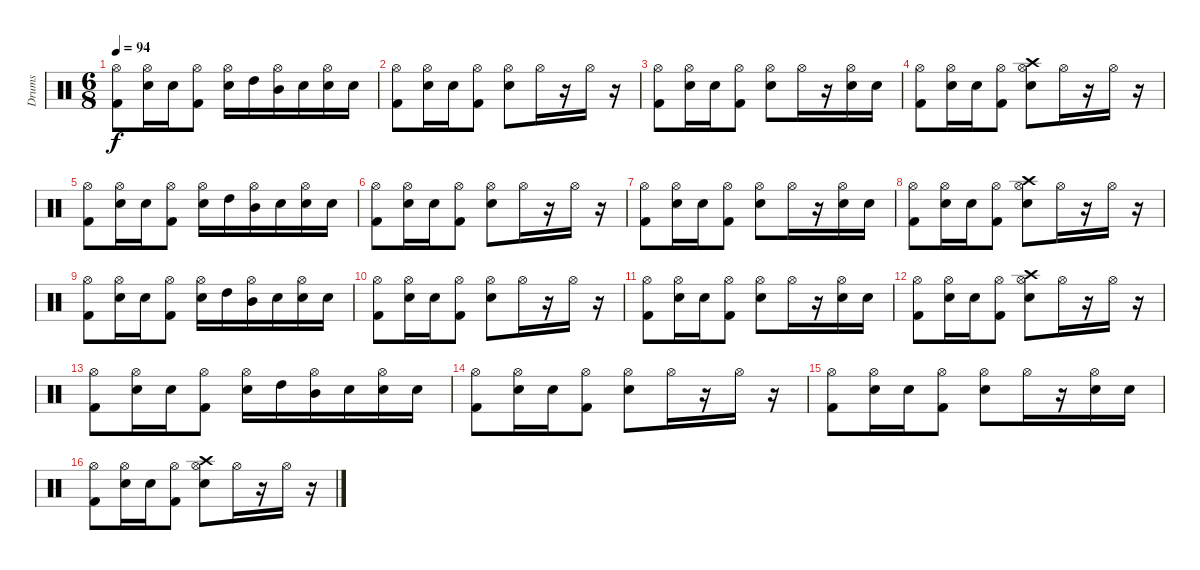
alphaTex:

\track ("Drums" "Drums") {instrument percussion}
\staff {score}
\articulation defaults
\ts (6 8)
\tempo 94
\clef neutral
\ks c
("Kick (hit) 2" "Hi-Hat (open)").8{dy f} ("Snare (hit) 2" "Hi-Hat (open)").16 "Snare (hit) 2".16 ("Kick (hit) 2" "Hi-Hat (open)").8 ("Electric Snare (hit)" "Hi-Hat (open)").16 "High Tom (hit)".16 ("Mid Tom (hit)" "Hi-Hat (open)").16 "Electric Snare (hit)".16 ("Snare (hit) 2" "Hi-Hat (open)").16 "Snare (hit) 2".16 |
("Kick (hit) 2" "Hi-Hat (open)").8 ("Snare (hit) 2" "Hi-Hat (open)").16 "Snare (hit) 2".16 ("Kick (hit) 2" "Hi-Hat (open)").8 ("Electric Snare (hit)" "Hi-Hat (open)").8 "Hi-Hat (open)".16 r.16 "Hi-Hat (open)".16 r.16 |
("Kick (hit) 2" "Hi-Hat (open)").8 ("Snare (hit) 2" "Hi-Hat (open)").16 "Snare (hit) 2".16 ("Kick (hit) 2" "Hi-Hat (open)").8 ("Electric Snare (hit)" "Hi-Hat (open)").8 "Hi-Hat (open)".16 r.16 ("Snare (hit) 2" "Hi-Hat (open)").16 "Snare (hit) 2".16 |
("Kick (hit) 2" "Hi-Hat (open)").8 ("Snare (hit) 2" "Hi-Hat (open)").16 "Snare (hit) 2".16 ("Kick (hit) 2" "Hi-Hat (open)").8 ("Electric Snare (hit)" "Crash high (hit)" "Hi-Hat (open)").8 "Hi-Hat (open)".16 r.16 "Hi-Hat (open)".16 r.16 |
("Kick (hit) 2" "Hi-Hat (open)").8 ("Snare (hit) 2" "Hi-Hat (open)").16 "Snare (hit) 2".16 ("Kick (hit) 2" "Hi-Hat (open)").8 ("Electric Snare (hit)" "Hi-Hat (open)").16 "High Tom (hit)".16 ("Mid Tom (hit)" "Hi-Hat (open)").16 "Electric Snare (hit)".16 ("Snare (hit) 2" "Hi-Hat (open)").16 "Snare (hit) 2".16 |
("Kick (hit) 2" "Hi-Hat (open)").8 ("Snare (hit) 2" "Hi-Hat (open)").16 "Snare (hit) 2".16 ("Kick (hit) 2" "Hi-Hat (open)").8 ("Electric Snare (hit)" "Hi-Hat (open)").8 "Hi-Hat (open)".16 r.16 "Hi-Hat (open)".16 r.16 |
("Kick (hit) 2" "Hi-Hat (open)").8 ("Snare (hit) 2" "Hi-Hat (open)").16 "Snare (hit) 2".16 ("Kick (hit) 2" "Hi-Hat (open)").8 ("Electric Snare (hit)" "Hi-Hat (open)").8 "Hi-Hat (open)".16 r.16 ("Snare (hit) 2" "Hi-Hat (open)").16 "Snare (hit) 2".16 |
("Kick (hit) 2" "Hi-Hat (open)").8 ("Snare (hit) 2" "Hi-Hat (open)").16 "Snare (hit) 2".16 ("Kick (hit) 2" "Hi-Hat (open)").8 ("Electric Snare (hit)" "Crash high (hit)" "Hi-Hat (open)").8 "Hi-Hat (open)".16 r.16 "Hi-Hat (open)".16 r.16 |
("Kick (hit) 2" "Hi-Hat (open)").8 ("Snare (hit) 2" "Hi-Hat (open)").16 "Snare (hit) 2".16 ("Kick (hit) 2" "Hi-Hat (open)").8 ("Electric Snare (hit)" "Hi-Hat (open)").16 "High Tom (hit)".16 ("Mid Tom (hit)" "Hi-Hat (open)").16 "Electric Snare (hit)".16 ("Snare (hit) 2" "Hi-Hat (open)").16 "Snare (hit) 2".16 |
("Kick (hit) 2" "Hi-Hat (open)").8 ("Snare (hit) 2" "Hi-Hat (open)").16 "Snare (hit) 2".16 ("Kick (hit) 2" "Hi-Hat (open)").8 ("Electric Snare (hit)" "Hi-Hat (open)").8 "Hi-Hat (open)".16 r.16 "Hi-Hat (open)".16 r.16 |
("Kick (hit) 2" "Hi-Hat (open)").8 ("Snare (hit) 2" "Hi-Hat (open)").16 "Snare (hit) 2".16 ("Kick (hit) 2" "Hi-Hat (open)").8 ("Electric Snare (hit)" "Hi-Hat (open)").8 "Hi-Hat (open)".16 r.16 ("Snare (hit) 2" "Hi-Hat (open)").16 "Snare (hit) 2".16 |
("Kick (hit) 2" "Hi-Hat (open)").8 ("Snare (hit) 2" "Hi-Hat (open)").16 "Snare (hit) 2".16 ("Kick (hit) 2" "Hi-Hat (open)").8 ("Electric Snare (hit)" "Crash high (hit)" "Hi-Hat (open)").8 "Hi-Hat (open)".16 r.16 "Hi-Hat (open)".16 r.16 |
("Kick (hit) 2" "Hi-Hat (open)").8 ("Snare (hit) 2" "Hi-Hat (open)").16 "Snare (hit) 2".16 ("Kick (hit) 2" "Hi-Hat (open)").8 ("Electric Snare (hit)" "Hi-Hat (open)").16 "High Tom (hit)".16 ("Mid Tom (hit)" "Hi-Hat (open)").16 "Electric Snare (hit)".16 ("Snare (hit) 2" "Hi-Hat (open)").16 "Snare (hit) 2".16 |
("Kick (hit) 2" "Hi-Hat (open)").8 ("Snare (hit) 2" "Hi-Hat (open)").16 "Snare (hit) 2".16 ("Kick (hit) 2" "Hi-Hat (open)").8 ("Electric Snare (hit)" "Hi-Hat (open)").8 "Hi-Hat (open)".16 r.16 "Hi-Hat (open)".16 r.16 |
("Kick (hit) 2" "Hi-Hat (open)").8 ("Snare (hit) 2" "Hi-Hat (open)").16 "Snare (hit) 2".16 ("Kick (hit) 2" "Hi-Hat (open)").8 ("Electric Snare (hit)" "Hi-Hat (open)").8 "Hi-Hat (open)".16 r.16 ("Snare (hit) 2" "Hi-Hat (open)").16 "Snare (hit) 2".16 |
("Kick (hit) 2" "Hi-Hat (open)").8 ("Snare (hit) 2" "Hi-Hat (open)").16 "Snare (hit) 2".16 ("Kick (hit) 2" "Hi-Hat (open)").8 ("Electric Snare (hit)" "Crash high (hit)" "Hi-Hat (open)").8 "Hi-Hat (open)".16 r.16 "Hi-Hat (open)".16 r.16
